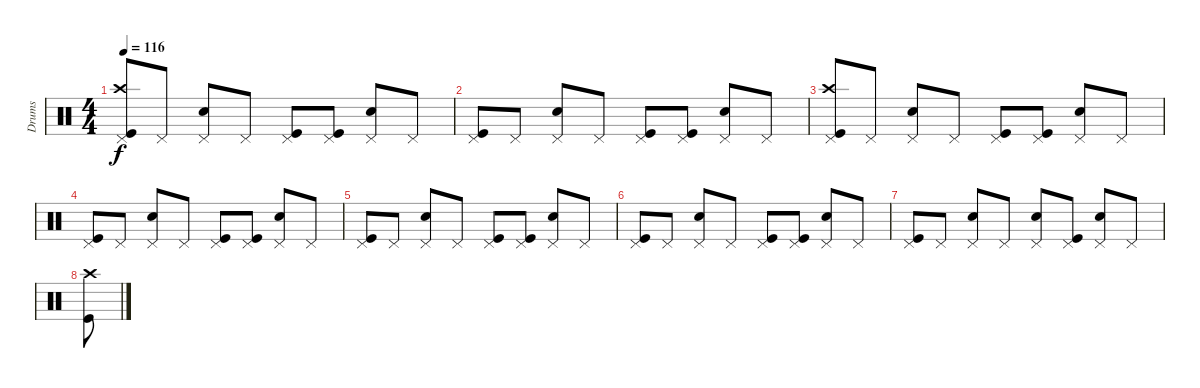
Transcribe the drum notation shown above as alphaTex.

\track ("Drums" "Drums") {instrument percussion}
\staff {score}
\articulation defaults
\ts (4 4)
\tempo 116
\clef neutral
\ks c
("Pedal Hi-Hat (hit)" "Crash high (hit)" "Kick (hit)").8{dy f} "Pedal Hi-Hat (hit)".8 ("Pedal Hi-Hat (hit)" "Snare (hit) 2").8 "Pedal Hi-Hat (hit)".8 ("Pedal Hi-Hat (hit)" "Kick (hit)").8 ("Pedal Hi-Hat (hit)" "Kick (hit)").8 ("Pedal Hi-Hat (hit)" "Snare (hit) 2").8 "Pedal Hi-Hat (hit)".8 |
("Pedal Hi-Hat (hit)" "Kick (hit)").8 "Pedal Hi-Hat (hit)".8 ("Pedal Hi-Hat (hit)" "Snare (hit) 2").8 "Pedal Hi-Hat (hit)".8 ("Pedal Hi-Hat (hit)" "Kick (hit)").8 ("Pedal Hi-Hat (hit)" "Kick (hit)").8 ("Pedal Hi-Hat (hit)" "Snare (hit) 2").8 "Pedal Hi-Hat (hit)".8 |
("Pedal Hi-Hat (hit)" "Crash high (hit)" "Kick (hit)").8 "Pedal Hi-Hat (hit)".8 ("Pedal Hi-Hat (hit)" "Snare (hit) 2").8 "Pedal Hi-Hat (hit)".8 ("Pedal Hi-Hat (hit)" "Kick (hit)").8 ("Pedal Hi-Hat (hit)" "Kick (hit)").8 ("Pedal Hi-Hat (hit)" "Snare (hit) 2").8 "Pedal Hi-Hat (hit)".8 |
("Pedal Hi-Hat (hit)" "Kick (hit)").8 "Pedal Hi-Hat (hit)".8 ("Pedal Hi-Hat (hit)" "Snare (hit) 2").8 "Pedal Hi-Hat (hit)".8 ("Pedal Hi-Hat (hit)" "Kick (hit)").8 ("Pedal Hi-Hat (hit)" "Kick (hit)").8 ("Pedal Hi-Hat (hit)" "Snare (hit) 2").8 "Pedal Hi-Hat (hit)".8 |
("Pedal Hi-Hat (hit)" "Kick (hit)").8 "Pedal Hi-Hat (hit)".8 ("Pedal Hi-Hat (hit)" "Snare (hit) 2").8 "Pedal Hi-Hat (hit)".8 ("Pedal Hi-Hat (hit)" "Kick (hit)").8 ("Pedal Hi-Hat (hit)" "Kick (hit)").8 ("Pedal Hi-Hat (hit)" "Snare (hit) 2").8 "Pedal Hi-Hat (hit)".8 |
("Pedal Hi-Hat (hit)" "Kick (hit)").8 "Pedal Hi-Hat (hit)".8 ("Pedal Hi-Hat (hit)" "Snare (hit) 2").8 "Pedal Hi-Hat (hit)".8 ("Pedal Hi-Hat (hit)" "Kick (hit)").8 ("Pedal Hi-Hat (hit)" "Kick (hit)").8 ("Pedal Hi-Hat (hit)" "Snare (hit) 2").8 "Pedal Hi-Hat (hit)".8 |
("Pedal Hi-Hat (hit)" "Kick (hit)").8 "Pedal Hi-Hat (hit)".8 ("Pedal Hi-Hat (hit)" "Snare (hit) 2").8 "Pedal Hi-Hat (hit)".8 ("Pedal Hi-Hat (hit)" "Snare (hit) 2").8 ("Pedal Hi-Hat (hit)" "Kick (hit)").8 ("Pedal Hi-Hat (hit)" "Snare (hit) 2").8 "Pedal Hi-Hat (hit)".8 |
("Crash high (hit)" "Kick (hit)").8
